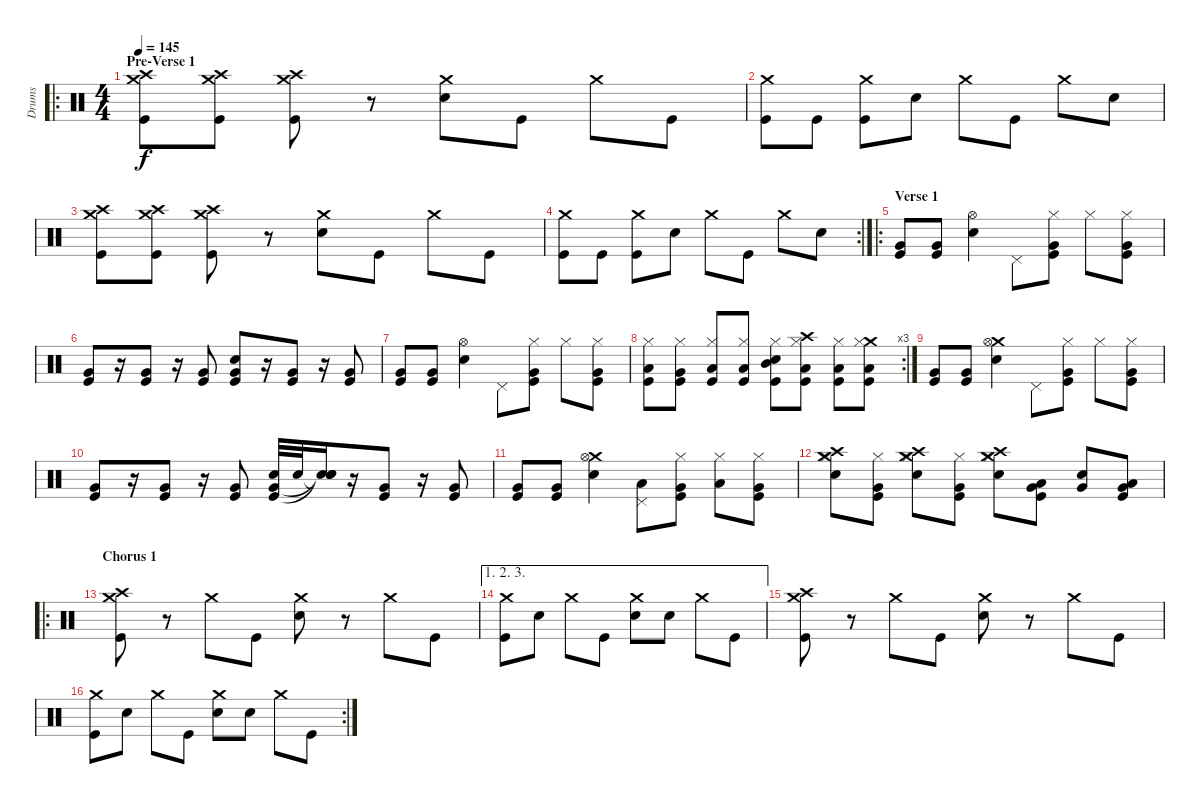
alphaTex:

\track ("Drums" "Drums") {instrument percussion}
\staff {score}
\articulation defaults
\ro
\ts (4 4)
\section ("" "Pre-Verse 1")
\tempo 145
\clef neutral
\ks c
("Crash medium (hit)" "Crash high (hit)" "Kick (hit)").8{dy f} ("Crash medium (hit)" "Crash high (hit)" "Kick (hit)").8 ("Crash medium (hit)" "Crash high (hit)" "Kick (hit)").8 r.8 ("Crash medium (hit)" "Electric Snare (hit)").8 "Kick (hit)".8 "Crash medium (hit)".8 "Kick (hit)".8 |
("Crash medium (hit)" "Kick (hit)").8 "Kick (hit)".8 ("Crash medium (hit)" "Kick (hit)").8 "Electric Snare (hit)".8 "Crash medium (hit)".8 "Kick (hit)".8 "Crash medium (hit)".8 "Electric Snare (hit)".8 |
("Crash medium (hit)" "Crash high (hit)" "Kick (hit)").8 ("Crash medium (hit)" "Crash high (hit)" "Kick (hit)").8 ("Crash medium (hit)" "Crash high (hit)" "Kick (hit)").8 r.8 ("Crash medium (hit)" "Electric Snare (hit)").8 "Kick (hit)".8 "Crash medium (hit)".8 "Kick (hit)".8 |
\rc 2
("Crash medium (hit)" "Kick (hit)").8 "Kick (hit)".8 ("Crash medium (hit)" "Kick (hit)").8 "Electric Snare (hit)".8 "Crash medium (hit)".8 "Kick (hit)".8 "Crash medium (hit)".8 "Electric Snare (hit)".8 |
\ro
\section ("" "Verse 1")
("Very Low Tom (hit)" "Kick (hit)").8 ("Very Low Tom (hit)" "Kick (hit)").8 ("Hi-Hat (open)" "Electric Snare (hit)").4 "Pedal Hi-Hat (hit)".8 ("Hi-Hat (closed)" "Very Low Tom (hit)" "Kick (hit)").8 "Hi-Hat (closed)".8 ("Hi-Hat (closed)" "Very Low Tom (hit)" "Kick (hit)").8 |
("Very Low Tom (hit)" "Kick (hit)").8 r.16 ("Very Low Tom (hit)" "Kick (hit)").8 r.16 ("Very Low Tom (hit)" "Kick (hit)").8 ("Electric Snare (hit)" "Very Low Tom (hit)" "Kick (hit)").8 r.16 ("Very Low Tom (hit)" "Kick (hit)").8 r.16 ("Very Low Tom (hit)" "Kick (hit)").8 |
("Very Low Tom (hit)" "Kick (hit)").8 ("Very Low Tom (hit)" "Kick (hit)").8 ("Hi-Hat (open)" "Electric Snare (hit)").4 "Pedal Hi-Hat (hit)".8 ("Hi-Hat (closed)" "Very Low Tom (hit)" "Kick (hit)").8 "Hi-Hat (closed)".8 ("Hi-Hat (closed)" "Very Low Tom (hit)" "Kick (hit)").8 |
\rc 3
("Hi-Hat (closed)" "Low Tom (hit)" "Kick (hit)").8 ("Hi-Hat (closed)" "Very Low Tom (hit)" "Kick (hit)").8 ("Hi-Hat (closed)" "Low Floor Tom (hit)" "Kick (hit)").8 ("Hi-Hat (closed)" "Low Floor Tom (hit)" "Kick (hit)").8 ("Hi-Hat (closed)" "Electric Snare (hit)" "Mid Tom (hit)" "Kick (hit)").8 ("Crash high (hit)" "Hi-Hat (closed)" "Low Tom (hit)" "Kick (hit)").8 ("Hi-Hat (closed)" "Low Floor Tom (hit)" "Kick (hit)").8 ("Crash medium (hit)" "Hi-Hat (closed)" "Low Floor Tom (hit)" "Kick (hit)").8 |
("Very Low Tom (hit)" "Kick (hit)").8 ("Very Low Tom (hit)" "Kick (hit)").8 ("Crash medium (hit)" "Hi-Hat (open)" "Electric Snare (hit)").4 "Pedal Hi-Hat (hit)".8 ("Hi-Hat (closed)" "Very Low Tom (hit)" "Kick (hit)").8 "Hi-Hat (closed)".8 ("Hi-Hat (closed)" "Very Low Tom (hit)" "Kick (hit)").8 |
("Very Low Tom (hit)" "Kick (hit)").8 r.16 ("Very Low Tom (hit)" "Kick (hit)").8 r.16 ("Very Low Tom (hit)" "Kick (hit)").8 ("Electric Snare (hit)" "Very Low Tom (hit)" "Kick (hit)").32 "Electric Snare (hit)".32 ("Snare (hit)"{t} "Snare (hit)"{t} "Snare (hit)"{t}).16 r.16 ("Very Low Tom (hit)" "Kick (hit)").8 r.16 ("Very Low Tom (hit)" "Kick (hit)").8 |
("Very Low Tom (hit)" "Kick (hit)").8 ("Very Low Tom (hit)" "Kick (hit)").8 ("Crash medium (hit)" "Hi-Hat (open)" "Electric Snare (hit)").4 ("Pedal Hi-Hat (hit)" "Low Tom (hit)").8 ("Hi-Hat (closed)" "Very Low Tom (hit)" "Kick (hit)").8 ("Hi-Hat (closed)" "Low Tom (hit)").8 ("Hi-Hat (closed)" "Very Low Tom (hit)" "Kick (hit)").8 |
("Crash medium (hit)" "Crash high (hit)" "Hi-Hat (closed)" "Electric Snare (hit)").8 ("Hi-Hat (closed)" "Very Low Tom (hit)" "Kick (hit)").8 ("Crash medium (hit)" "Crash high (hit)" "Hi-Hat (closed)" "Electric Snare (hit)").8 ("Hi-Hat (closed)" "Very Low Tom (hit)" "Kick (hit)").8 ("Crash medium (hit)" "Crash high (hit)" "Hi-Hat (closed)" "Electric Snare (hit)").8 ("Low Tom (hit)" "Very Low Tom (hit)" "Kick (hit)").8 ("Very Low Tom (hit)" "Electric Snare (hit)").8 ("Low Floor Tom (hit)" "Very Low Tom (hit)" "Kick (hit)").8 |
\ro
\section ("" "Chorus 1")
("Crash medium (hit)" "Crash high (hit)" "Kick (hit)").8 r.8 "Crash medium (hit)".8 "Kick (hit)".8 ("Crash medium (hit)" "Electric Snare (hit)").8 r.8 "Crash medium (hit)".8 "Kick (hit)".8 |
\ae (1 2 3)
("Crash medium (hit)" "Kick (hit)").8 "Electric Snare (hit)".8 "Crash medium (hit)".8 "Kick (hit)".8 ("Crash medium (hit)" "Electric Snare (hit)").8 "Electric Snare (hit)".8 "Crash medium (hit)".8 "Kick (hit)".8 |
("Crash medium (hit)" "Crash high (hit)" "Kick (hit)").8 r.8 "Crash medium (hit)".8 "Kick (hit)".8 ("Crash medium (hit)" "Electric Snare (hit)").8 r.8 "Crash medium (hit)".8 "Kick (hit)".8 |
\rc 2
("Crash medium (hit)" "Kick (hit)").8 "Electric Snare (hit)".8 "Crash medium (hit)".8 "Kick (hit)".8 ("Crash medium (hit)" "Electric Snare (hit)").8 "Electric Snare (hit)".8 "Crash medium (hit)".8 "Kick (hit)".8
